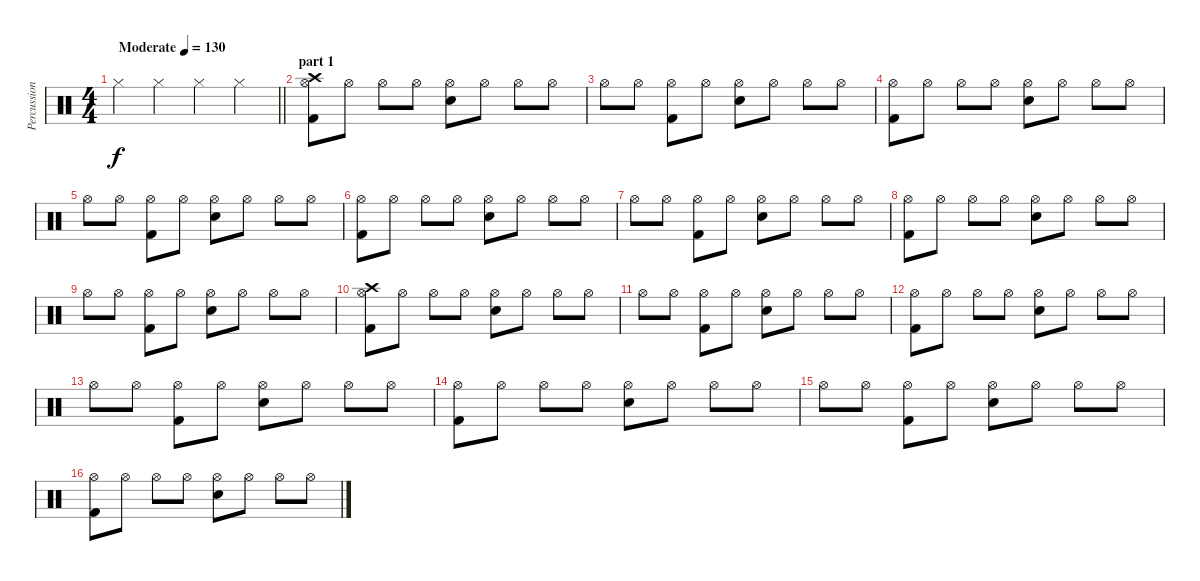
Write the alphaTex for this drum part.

\track ("Percussion" "Percussion") {instrument percussion}
\staff {score}
\articulation defaults
\ts (4 4)
\tempo (130 "Moderate")
\clef neutral
\barLineRight lightlight
\ks c "Hi-Hat (closed)".4{dy f} "Hi-Hat (closed)".4 "Hi-Hat (closed)".4 "Hi-Hat (closed)".4
|
\section ("" "part 1")
("Kick (hit) 2" "Crash high (hit)" "Hi-Hat (open)").8 "Hi-Hat (open)".8 "Hi-Hat (open)".8 "Hi-Hat (open)".8 ("Electric Snare (hit)" "Hi-Hat (open)").8 "Hi-Hat (open)".8 "Hi-Hat (open)".8 "Hi-Hat (open)".8 |
"Hi-Hat (open)".8 "Hi-Hat (open)".8 ("Kick (hit) 2" "Hi-Hat (open)").8 "Hi-Hat (open)".8 ("Electric Snare (hit)" "Hi-Hat (open)").8 "Hi-Hat (open)".8 "Hi-Hat (open)".8 "Hi-Hat (open)".8 |
("Kick (hit) 2" "Hi-Hat (open)").8 "Hi-Hat (open)".8 "Hi-Hat (open)".8 "Hi-Hat (open)".8 ("Electric Snare (hit)" "Hi-Hat (open)").8 "Hi-Hat (open)".8 "Hi-Hat (open)".8 "Hi-Hat (open)".8 |
"Hi-Hat (open)".8 "Hi-Hat (open)".8 ("Kick (hit) 2" "Hi-Hat (open)").8 "Hi-Hat (open)".8 ("Electric Snare (hit)" "Hi-Hat (open)").8 "Hi-Hat (open)".8 "Hi-Hat (open)".8 "Hi-Hat (open)".8 |
("Kick (hit) 2" "Hi-Hat (open)").8 "Hi-Hat (open)".8 "Hi-Hat (open)".8 "Hi-Hat (open)".8 ("Electric Snare (hit)" "Hi-Hat (open)").8 "Hi-Hat (open)".8 "Hi-Hat (open)".8 "Hi-Hat (open)".8 |
"Hi-Hat (open)".8 "Hi-Hat (open)".8 ("Kick (hit) 2" "Hi-Hat (open)").8 "Hi-Hat (open)".8 ("Electric Snare (hit)" "Hi-Hat (open)").8 "Hi-Hat (open)".8 "Hi-Hat (open)".8 "Hi-Hat (open)".8 |
("Kick (hit) 2" "Hi-Hat (open)").8 "Hi-Hat (open)".8 "Hi-Hat (open)".8 "Hi-Hat (open)".8 ("Electric Snare (hit)" "Hi-Hat (open)").8 "Hi-Hat (open)".8 "Hi-Hat (open)".8 "Hi-Hat (open)".8 |
"Hi-Hat (open)".8 "Hi-Hat (open)".8 ("Kick (hit) 2" "Hi-Hat (open)").8 "Hi-Hat (open)".8 ("Electric Snare (hit)" "Hi-Hat (open)").8 "Hi-Hat (open)".8 "Hi-Hat (open)".8 "Hi-Hat (open)".8 |
("Kick (hit) 2" "Crash high (hit)" "Hi-Hat (open)").8 "Hi-Hat (open)".8 "Hi-Hat (open)".8 "Hi-Hat (open)".8 ("Electric Snare (hit)" "Hi-Hat (open)").8 "Hi-Hat (open)".8 "Hi-Hat (open)".8 "Hi-Hat (open)".8 |
"Hi-Hat (open)".8 "Hi-Hat (open)".8 ("Kick (hit) 2" "Hi-Hat (open)").8 "Hi-Hat (open)".8 ("Electric Snare (hit)" "Hi-Hat (open)").8 "Hi-Hat (open)".8 "Hi-Hat (open)".8 "Hi-Hat (open)".8 |
("Kick (hit) 2" "Hi-Hat (open)").8 "Hi-Hat (open)".8 "Hi-Hat (open)".8 "Hi-Hat (open)".8 ("Electric Snare (hit)" "Hi-Hat (open)").8 "Hi-Hat (open)".8 "Hi-Hat (open)".8 "Hi-Hat (open)".8 |
"Hi-Hat (open)".8 "Hi-Hat (open)".8 ("Kick (hit) 2" "Hi-Hat (open)").8 "Hi-Hat (open)".8 ("Electric Snare (hit)" "Hi-Hat (open)").8 "Hi-Hat (open)".8 "Hi-Hat (open)".8 "Hi-Hat (open)".8 |
("Kick (hit) 2" "Hi-Hat (open)").8 "Hi-Hat (open)".8 "Hi-Hat (open)".8 "Hi-Hat (open)".8 ("Electric Snare (hit)" "Hi-Hat (open)").8 "Hi-Hat (open)".8 "Hi-Hat (open)".8 "Hi-Hat (open)".8 |
"Hi-Hat (open)".8 "Hi-Hat (open)".8 ("Kick (hit) 2" "Hi-Hat (open)").8 "Hi-Hat (open)".8 ("Electric Snare (hit)" "Hi-Hat (open)").8 "Hi-Hat (open)".8 "Hi-Hat (open)".8 "Hi-Hat (open)".8 |
("Kick (hit) 2" "Hi-Hat (open)").8 "Hi-Hat (open)".8 "Hi-Hat (open)".8 "Hi-Hat (open)".8 ("Electric Snare (hit)" "Hi-Hat (open)").8 "Hi-Hat (open)".8 "Hi-Hat (open)".8 "Hi-Hat (open)".8
